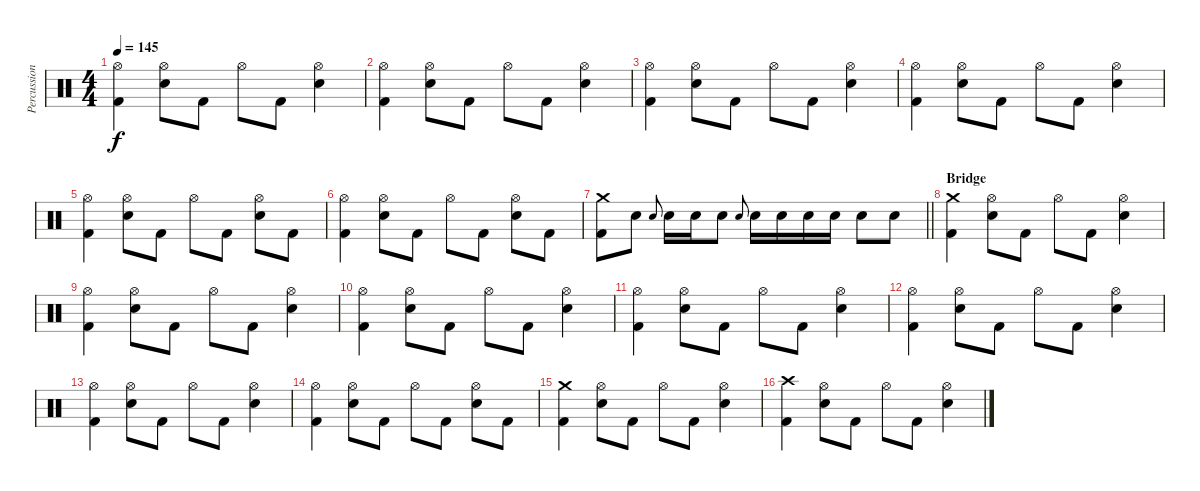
\track ("Percussion" "Percussion") {instrument percussion}
\staff {score}
\articulation defaults
\ts (4 4)
\tempo 145
\clef neutral
\ks c
("Kick (hit) 2" "Hi-Hat (open)").4{dy f} ("Electric Snare (hit)" "Hi-Hat (open)").8 "Kick (hit) 2".8 "Hi-Hat (open)".8 "Kick (hit) 2".8 ("Electric Snare (hit)" "Hi-Hat (open)").4 |
("Kick (hit) 2" "Hi-Hat (open)").4 ("Electric Snare (hit)" "Hi-Hat (open)").8 "Kick (hit) 2".8 "Hi-Hat (open)".8 "Kick (hit) 2".8 ("Electric Snare (hit)" "Hi-Hat (open)").4 |
("Kick (hit) 2" "Hi-Hat (open)").4 ("Electric Snare (hit)" "Hi-Hat (open)").8 "Kick (hit) 2".8 "Hi-Hat (open)".8 "Kick (hit) 2".8 ("Electric Snare (hit)" "Hi-Hat (open)").4 |
("Kick (hit) 2" "Hi-Hat (open)").4 ("Electric Snare (hit)" "Hi-Hat (open)").8 "Kick (hit) 2".8 "Hi-Hat (open)".8 "Kick (hit) 2".8 ("Electric Snare (hit)" "Hi-Hat (open)").4 |
("Kick (hit) 2" "Hi-Hat (open)").4 ("Electric Snare (hit)" "Hi-Hat (open)").8 "Kick (hit) 2".8 "Hi-Hat (open)".8 "Kick (hit) 2".8 ("Electric Snare (hit)" "Hi-Hat (open)").8 "Kick (hit) 2".8 |
("Kick (hit) 2" "Hi-Hat (open)").4 ("Electric Snare (hit)" "Hi-Hat (open)").8 "Kick (hit) 2".8 "Hi-Hat (open)".8 "Kick (hit) 2".8 ("Electric Snare (hit)" "Hi-Hat (open)").8 "Kick (hit) 2".8 |
\barLineRight lightlight
("Crash medium (hit)" "Kick (hit) 2").8 "Electric Snare (hit)".8 "Electric Snare (hit)".8{gr onbeat} "Electric Snare (hit)".16 "Electric Snare (hit)".16 "Electric Snare (hit)".8 "Electric Snare (hit)".8{gr onbeat} "Electric Snare (hit)".16 "Electric Snare (hit)".16 "Electric Snare (hit)".16 "Electric Snare (hit)".16 "Electric Snare (hit)".8 "Electric Snare (hit)".8 |
\section ("" "Bridge")
("Kick (hit) 2" "Crash medium (hit)").4 ("Electric Snare (hit)" "Hi-Hat (open)").8 "Kick (hit) 2".8 "Hi-Hat (open)".8 "Kick (hit) 2".8 ("Electric Snare (hit)" "Hi-Hat (open)").4 |
("Kick (hit) 2" "Hi-Hat (open)").4 ("Electric Snare (hit)" "Hi-Hat (open)").8 "Kick (hit) 2".8 "Hi-Hat (open)".8 "Kick (hit) 2".8 ("Electric Snare (hit)" "Hi-Hat (open)").4 |
("Kick (hit) 2" "Hi-Hat (open)").4 ("Electric Snare (hit)" "Hi-Hat (open)").8 "Kick (hit) 2".8 "Hi-Hat (open)".8 "Kick (hit) 2".8 ("Electric Snare (hit)" "Hi-Hat (open)").4 |
("Kick (hit) 2" "Hi-Hat (open)").4 ("Electric Snare (hit)" "Hi-Hat (open)").8 "Kick (hit) 2".8 "Hi-Hat (open)".8 "Kick (hit) 2".8 ("Electric Snare (hit)" "Hi-Hat (open)").4 |
("Kick (hit) 2" "Hi-Hat (open)").4 ("Electric Snare (hit)" "Hi-Hat (open)").8 "Kick (hit) 2".8 "Hi-Hat (open)".8 "Kick (hit) 2".8 ("Electric Snare (hit)" "Hi-Hat (open)").4 |
("Kick (hit) 2" "Hi-Hat (open)").4 ("Electric Snare (hit)" "Hi-Hat (open)").8 "Kick (hit) 2".8 "Hi-Hat (open)".8 "Kick (hit) 2".8 ("Electric Snare (hit)" "Hi-Hat (open)").4 |
("Kick (hit) 2" "Hi-Hat (open)").4 ("Electric Snare (hit)" "Hi-Hat (open)").8 "Kick (hit) 2".8 "Hi-Hat (open)".8 "Kick (hit) 2".8 ("Electric Snare (hit)" "Hi-Hat (open)").8 "Kick (hit) 2".8 |
("Kick (hit) 2" "Crash medium (hit)").4 ("Electric Snare (hit)" "Hi-Hat (open)").8 "Kick (hit) 2".8 "Hi-Hat (open)".8 "Kick (hit) 2".8 ("Electric Snare (hit)" "Hi-Hat (open)").4 |
("Kick (hit) 2" "Crash high (hit)").4 ("Electric Snare (hit)" "Hi-Hat (open)").8 "Kick (hit) 2".8 "Hi-Hat (open)".8 "Kick (hit) 2".8 ("Electric Snare (hit)" "Hi-Hat (open)").4
